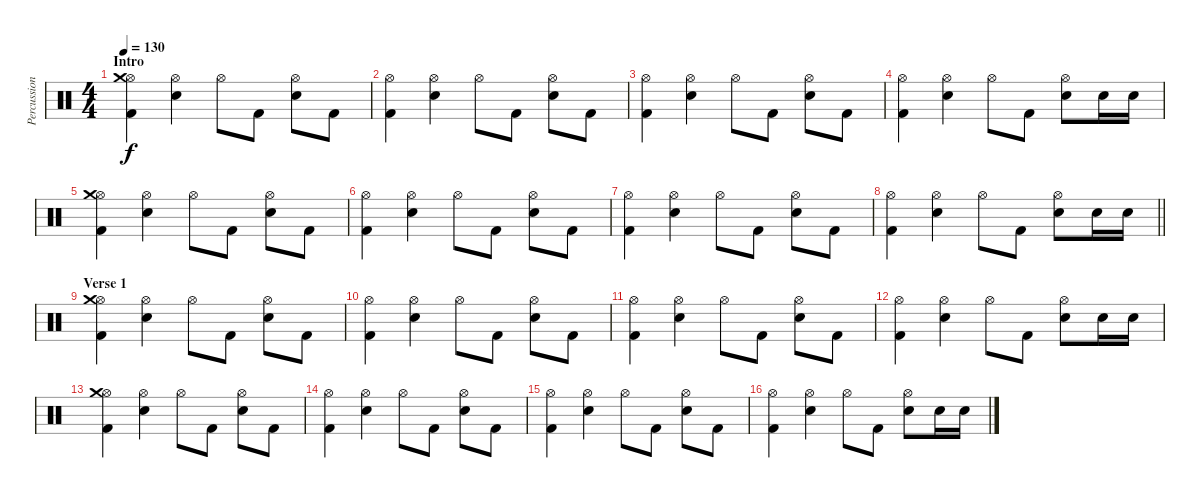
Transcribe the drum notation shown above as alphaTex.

\track ("Percussion" "Percussion") {instrument percussion}
\staff {score}
\articulation defaults
\ts (4 4)
\section ("" "Intro")
\tempo 130
\clef neutral
\ks c
("Hi-Hat (open)" "Crash medium (hit)" "Kick (hit) 2").4{dy f} ("Hi-Hat (open)" "Electric Snare (hit)").4 "Hi-Hat (open)".8 "Kick (hit) 2".8 ("Hi-Hat (open)" "Electric Snare (hit)").8 "Kick (hit) 2".8 |
("Hi-Hat (open)" "Kick (hit) 2").4 ("Hi-Hat (open)" "Electric Snare (hit)").4 "Hi-Hat (open)".8 "Kick (hit) 2".8 ("Hi-Hat (open)" "Electric Snare (hit)").8 "Kick (hit) 2".8 |
("Hi-Hat (open)" "Kick (hit) 2").4 ("Hi-Hat (open)" "Electric Snare (hit)").4 "Hi-Hat (open)".8 "Kick (hit) 2".8 ("Hi-Hat (open)" "Electric Snare (hit)").8 "Kick (hit) 2".8 |
("Hi-Hat (open)" "Kick (hit) 2").4 ("Hi-Hat (open)" "Electric Snare (hit)").4 "Hi-Hat (open)".8 "Kick (hit) 2".8 ("Hi-Hat (open)" "Electric Snare (hit)").8 "Electric Snare (hit)".16 "Electric Snare (hit)".16 |
("Hi-Hat (open)" "Crash medium (hit)" "Kick (hit) 2").4 ("Hi-Hat (open)" "Electric Snare (hit)").4 "Hi-Hat (open)".8 "Kick (hit) 2".8 ("Hi-Hat (open)" "Electric Snare (hit)").8 "Kick (hit) 2".8 |
("Hi-Hat (open)" "Kick (hit) 2").4 ("Hi-Hat (open)" "Electric Snare (hit)").4 "Hi-Hat (open)".8 "Kick (hit) 2".8 ("Hi-Hat (open)" "Electric Snare (hit)").8 "Kick (hit) 2".8 |
("Hi-Hat (open)" "Kick (hit) 2").4 ("Hi-Hat (open)" "Electric Snare (hit)").4 "Hi-Hat (open)".8 "Kick (hit) 2".8 ("Hi-Hat (open)" "Electric Snare (hit)").8 "Kick (hit) 2".8 |
\barLineRight lightlight
("Hi-Hat (open)" "Kick (hit) 2").4 ("Hi-Hat (open)" "Electric Snare (hit)").4 "Hi-Hat (open)".8 "Kick (hit) 2".8 ("Hi-Hat (open)" "Electric Snare (hit)").8 "Electric Snare (hit)".16 "Electric Snare (hit)".16 |
\section ("" "Verse 1")
("Hi-Hat (open)" "Crash medium (hit)" "Kick (hit) 2").4 ("Hi-Hat (open)" "Electric Snare (hit)").4 "Hi-Hat (open)".8 "Kick (hit) 2".8 ("Hi-Hat (open)" "Electric Snare (hit)").8 "Kick (hit) 2".8 |
("Hi-Hat (open)" "Kick (hit) 2").4 ("Hi-Hat (open)" "Electric Snare (hit)").4 "Hi-Hat (open)".8 "Kick (hit) 2".8 ("Hi-Hat (open)" "Electric Snare (hit)").8 "Kick (hit) 2".8 |
("Hi-Hat (open)" "Kick (hit) 2").4 ("Hi-Hat (open)" "Electric Snare (hit)").4 "Hi-Hat (open)".8 "Kick (hit) 2".8 ("Hi-Hat (open)" "Electric Snare (hit)").8 "Kick (hit) 2".8 |
("Hi-Hat (open)" "Kick (hit) 2").4 ("Hi-Hat (open)" "Electric Snare (hit)").4 "Hi-Hat (open)".8 "Kick (hit) 2".8 ("Hi-Hat (open)" "Electric Snare (hit)").8 "Electric Snare (hit)".16 "Electric Snare (hit)".16 |
("Hi-Hat (open)" "Crash medium (hit)" "Kick (hit) 2").4 ("Hi-Hat (open)" "Electric Snare (hit)").4 "Hi-Hat (open)".8 "Kick (hit) 2".8 ("Hi-Hat (open)" "Electric Snare (hit)").8 "Kick (hit) 2".8 |
("Hi-Hat (open)" "Kick (hit) 2").4 ("Hi-Hat (open)" "Electric Snare (hit)").4 "Hi-Hat (open)".8 "Kick (hit) 2".8 ("Hi-Hat (open)" "Electric Snare (hit)").8 "Kick (hit) 2".8 |
("Hi-Hat (open)" "Kick (hit) 2").4 ("Hi-Hat (open)" "Electric Snare (hit)").4 "Hi-Hat (open)".8 "Kick (hit) 2".8 ("Hi-Hat (open)" "Electric Snare (hit)").8 "Kick (hit) 2".8 |
("Hi-Hat (open)" "Kick (hit) 2").4 ("Hi-Hat (open)" "Electric Snare (hit)").4 "Hi-Hat (open)".8 "Kick (hit) 2".8 ("Hi-Hat (open)" "Electric Snare (hit)").8 "Electric Snare (hit)".16 "Electric Snare (hit)".16
